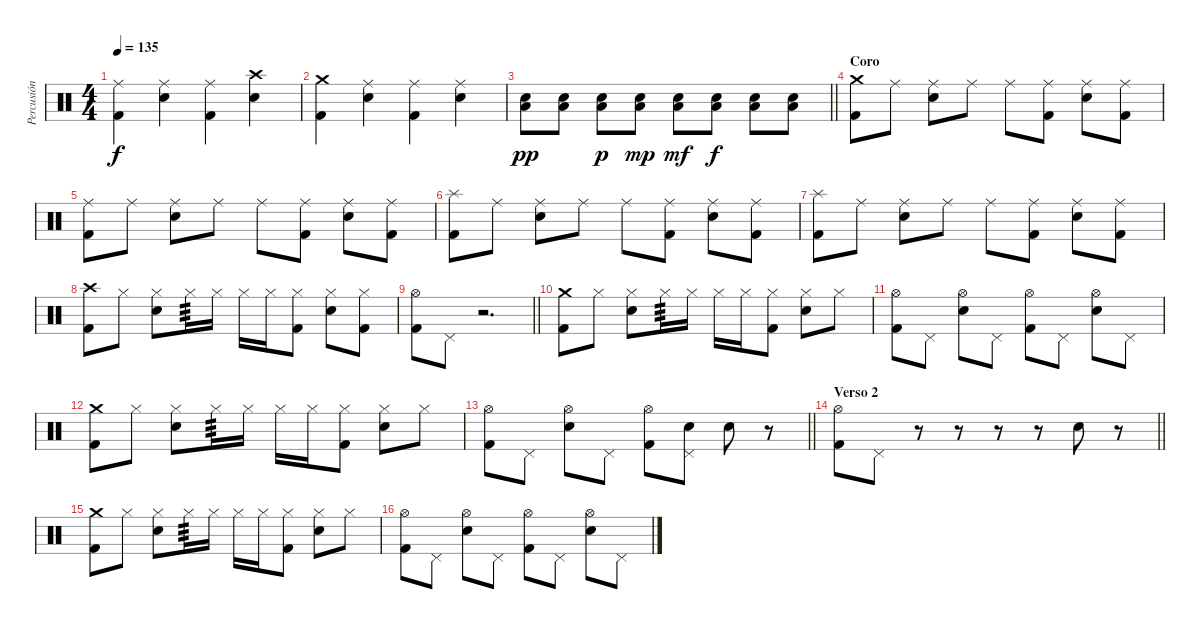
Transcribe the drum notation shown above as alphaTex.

\track ("Percusión" "Percusión") {instrument percussion}
\staff {score}
\articulation defaults
\ts (4 4)
\tempo 135
\clef neutral
\ks c
("Ride (middle)" "Kick (hit) 2").4{dy f} ("Ride (middle)" "Electric Snare (hit)").4 ("Ride (middle)" "Kick (hit) 2").4 ("Crash high (hit)" "Electric Snare (hit)").4 |
("Crash medium (hit)" "Kick (hit) 2").4 ("Ride (middle)" "Electric Snare (hit)").4 ("Ride (middle)" "Kick (hit) 2").4 ("Ride (middle)" "Electric Snare (hit)").4 |
\barLineRight lightlight
("Low Floor Tom (hit)" "Electric Snare (hit)").8{dy pp} ("Low Floor Tom (hit)" "Electric Snare (hit)").8 ("Low Floor Tom (hit)" "Electric Snare (hit)").8{dy p} ("Low Floor Tom (hit)" "Electric Snare (hit)").8{dy mp} ("Low Floor Tom (hit)" "Electric Snare (hit)").8{dy mf} ("Low Floor Tom (hit)" "Electric Snare (hit)").8{dy f} ("Low Floor Tom (hit)" "Electric Snare (hit)").8 ("Low Floor Tom (hit)" "Electric Snare (hit)").8 |
\section ("" "Coro")
("Crash medium (hit)" "Kick (hit) 2").8 "Ride (middle)".8 ("Ride (middle)" "Electric Snare (hit)").8 "Ride (middle)".8 "Ride (middle)".8 ("Ride (middle)" "Kick (hit) 2").8 ("Ride (middle)" "Electric Snare (hit)").8 ("Ride (middle)" "Kick (hit) 2").8 |
("Ride (middle)" "Kick (hit) 2").8 "Ride (middle)".8 ("Ride (middle)" "Electric Snare (hit)").8 "Ride (middle)".8 "Ride (middle)".8 ("Ride (middle)" "Kick (hit) 2").8 ("Ride (middle)" "Electric Snare (hit)").8 ("Ride (middle)" "Kick (hit) 2").8 |
("Splash (hit)" "Kick (hit) 2").8 "Ride (middle)".8 ("Ride (middle)" "Electric Snare (hit)").8 "Ride (middle)".8 "Ride (middle)".8 ("Ride (middle)" "Kick (hit) 2").8 ("Ride (middle)" "Electric Snare (hit)").8 ("Ride (middle)" "Kick (hit) 2").8 |
("Splash (hit)" "Kick (hit) 2").8 "Ride (middle)".8 ("Ride (middle)" "Electric Snare (hit)").8 "Ride (middle)".8 "Ride (middle)".8 ("Ride (middle)" "Kick (hit) 2").8 ("Ride (middle)" "Electric Snare (hit)").8 ("Ride (middle)" "Kick (hit) 2").8 |
("Crash high (hit)" "Kick (hit) 2").8 "Hi-Hat (closed)".8 ("Hi-Hat (closed)" "Electric Snare (hit)").8 "Hi-Hat (closed)".16{tp 3} "Hi-Hat (closed)".16 "Hi-Hat (closed)".16 "Hi-Hat (closed)".16 ("Hi-Hat (closed)" "Kick (hit) 2").8 ("Hi-Hat (closed)" "Electric Snare (hit)").8 ("Hi-Hat (closed)" "Kick (hit) 2").8 |
\barLineRight lightlight
("Hi-Hat (open)" "Kick (hit) 2").8 "Pedal Hi-Hat (hit)".8 r.2{d} |
("Crash medium (hit)" "Kick (hit) 2").8 "Hi-Hat (closed)".8 ("Hi-Hat (closed)" "Electric Snare (hit)").8 "Hi-Hat (closed)".16{tp 3} "Hi-Hat (closed)".16 "Hi-Hat (closed)".16 "Hi-Hat (closed)".16 ("Hi-Hat (closed)" "Kick (hit) 2").8 ("Hi-Hat (closed)" "Electric Snare (hit)").8 "Hi-Hat (closed)".8 |
("Hi-Hat (open)" "Kick (hit) 2").8 "Pedal Hi-Hat (hit)".8 ("Hi-Hat (open)" "Electric Snare (hit)").8 "Pedal Hi-Hat (hit)".8 ("Hi-Hat (open)" "Kick (hit) 2").8 "Pedal Hi-Hat (hit)".8 ("Hi-Hat (open)" "Electric Snare (hit)").8 "Pedal Hi-Hat (hit)".8 |
("Crash medium (hit)" "Kick (hit) 2").8 "Hi-Hat (closed)".8 ("Hi-Hat (closed)" "Electric Snare (hit)").8 "Hi-Hat (closed)".16{tp 3} "Hi-Hat (closed)".16 "Hi-Hat (closed)".16 "Hi-Hat (closed)".16 ("Hi-Hat (closed)" "Kick (hit) 2").8 ("Hi-Hat (closed)" "Electric Snare (hit)").8 "Hi-Hat (closed)".8 |
\barLineRight lightlight
("Hi-Hat (open)" "Kick (hit) 2").8 "Pedal Hi-Hat (hit)".8 ("Hi-Hat (open)" "Electric Snare (hit)").8 "Pedal Hi-Hat (hit)".8 ("Hi-Hat (open)" "Kick (hit) 2").8 ("Pedal Hi-Hat (hit)" "Electric Snare (hit)").8 "Electric Snare (hit)".8 r.8 |
\section ("" "Verso 2")
\barLineRight lightlight
("Hi-Hat (open)" "Kick (hit) 2").8 "Pedal Hi-Hat (hit)".8 r.8 r.8 r.8 r.8 "Electric Snare (hit)".8 r.8 |
("Crash medium (hit)" "Kick (hit) 2").8 "Hi-Hat (closed)".8 ("Hi-Hat (closed)" "Electric Snare (hit)").8 "Hi-Hat (closed)".16{tp 3} "Hi-Hat (closed)".16 "Hi-Hat (closed)".16 "Hi-Hat (closed)".16 ("Hi-Hat (closed)" "Kick (hit) 2").8 ("Hi-Hat (closed)" "Electric Snare (hit)").8 "Hi-Hat (closed)".8 |
("Hi-Hat (open)" "Kick (hit) 2").8 "Pedal Hi-Hat (hit)".8 ("Hi-Hat (open)" "Electric Snare (hit)").8 "Pedal Hi-Hat (hit)".8 ("Hi-Hat (open)" "Kick (hit) 2").8 "Pedal Hi-Hat (hit)".8 ("Hi-Hat (open)" "Electric Snare (hit)").8 "Pedal Hi-Hat (hit)".8
